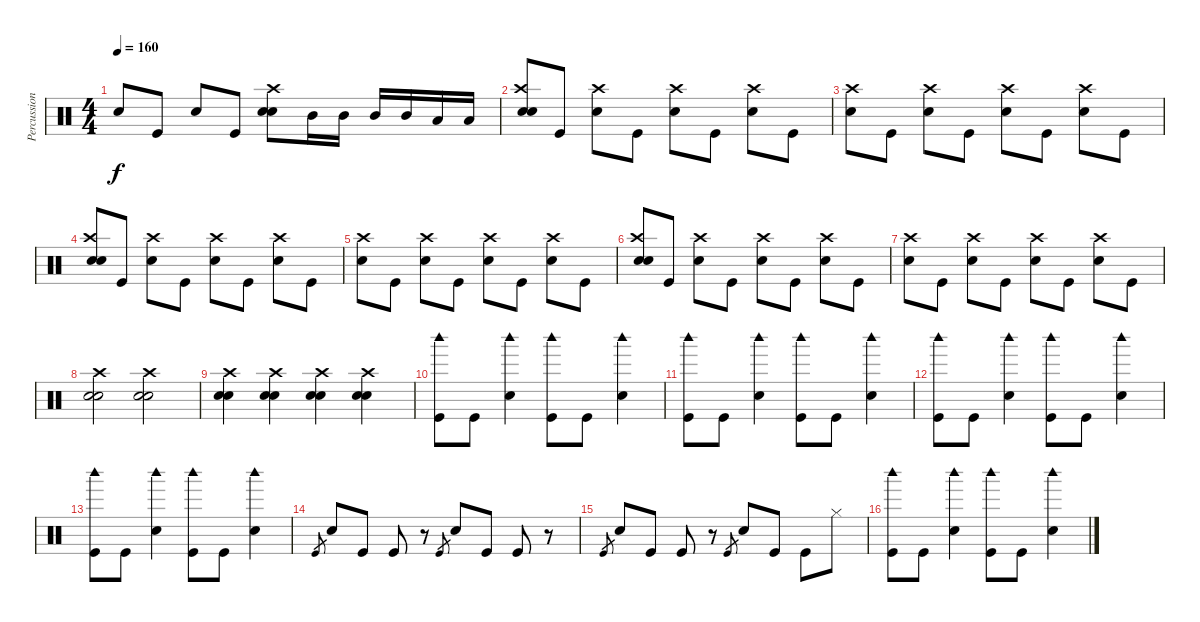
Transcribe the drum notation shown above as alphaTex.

\track ("Percussion" "Percussion") {instrument percussion}
\staff {score}
\articulation defaults
\ts (4 4)
\tempo 160
\clef neutral
\ks c "Snare (hit) 2".8{dy f} "Kick (hit)".8 "Snare (hit) 2".8 "Kick (hit)".8
("Crash high (hit)" "Snare (hit) 2" "Electric Snare (hit)").8 "Mid Tom (hit)".16 "Mid Tom (hit)".16 "Mid Tom (hit)".16 "Mid Tom (hit)".16 "Low Tom (hit)".16 "Low Tom (hit)".16 |
("Crash high (hit)" "Snare (hit) 2" "Electric Snare (hit)").8 "Kick (hit)".8 ("Snare (hit) 2" "Crash high (hit)").8 "Kick (hit)".8 ("Snare (hit) 2" "Crash high (hit)").8 "Kick (hit)".8 ("Snare (hit) 2" "Crash high (hit)").8 "Kick (hit)".8 |
("Snare (hit) 2" "Crash high (hit)").8 "Kick (hit)".8 ("Snare (hit) 2" "Crash high (hit)").8 "Kick (hit)".8 ("Snare (hit) 2" "Crash high (hit)").8 "Kick (hit)".8 ("Snare (hit) 2" "Crash high (hit)").8 "Kick (hit)".8 |
("Crash high (hit)" "Snare (hit) 2" "Electric Snare (hit)").8 "Kick (hit)".8 ("Snare (hit) 2" "Crash high (hit)").8 "Kick (hit)".8 ("Snare (hit) 2" "Crash high (hit)").8 "Kick (hit)".8 ("Snare (hit) 2" "Crash high (hit)").8 "Kick (hit)".8 |
("Snare (hit) 2" "Crash high (hit)").8 "Kick (hit)".8 ("Snare (hit) 2" "Crash high (hit)").8 "Kick (hit)".8 ("Snare (hit) 2" "Crash high (hit)").8 "Kick (hit)".8 ("Snare (hit) 2" "Crash high (hit)").8 "Kick (hit)".8 |
("Crash high (hit)" "Snare (hit) 2" "Electric Snare (hit)").8 "Kick (hit)".8 ("Snare (hit) 2" "Crash high (hit)").8 "Kick (hit)".8 ("Snare (hit) 2" "Crash high (hit)").8 "Kick (hit)".8 ("Snare (hit) 2" "Crash high (hit)").8 "Kick (hit)".8 |
("Snare (hit) 2" "Crash high (hit)").8 "Kick (hit)".8 ("Snare (hit) 2" "Crash high (hit)").8 "Kick (hit)".8 ("Snare (hit) 2" "Crash high (hit)").8 "Kick (hit)".8 ("Snare (hit) 2" "Crash high (hit)").8 "Kick (hit)".8 |
("Crash high (hit)" "Snare (hit) 2" "Electric Snare (hit)").2 ("Crash high (hit)" "Snare (hit) 2" "Electric Snare (hit)").2 |
("Crash high (hit)" "Snare (hit) 2" "Electric Snare (hit)").4 ("Crash high (hit)" "Snare (hit) 2" "Electric Snare (hit)").4 ("Crash high (hit)" "Snare (hit) 2" "Electric Snare (hit)").4 ("Crash high (hit)" "Snare (hit) 2" "Electric Snare (hit)").4 |
("Woodblock high (hit)" "Kick (hit)").8 "Kick (hit)".8 ("Woodblock high (hit)" "Snare (hit) 2").4 ("Woodblock high (hit)" "Kick (hit)").8 "Kick (hit)".8 ("Woodblock high (hit)" "Snare (hit) 2").4 |
("Woodblock high (hit)" "Kick (hit)").8 "Kick (hit)".8 ("Woodblock high (hit)" "Snare (hit) 2").4 ("Woodblock high (hit)" "Kick (hit)").8 "Kick (hit)".8 ("Woodblock high (hit)" "Snare (hit) 2").4 |
("Woodblock high (hit)" "Kick (hit)").8 "Kick (hit)".8 ("Woodblock high (hit)" "Snare (hit) 2").4 ("Woodblock high (hit)" "Kick (hit)").8 "Kick (hit)".8 ("Woodblock high (hit)" "Snare (hit) 2").4 |
("Woodblock high (hit)" "Kick (hit)").8 "Kick (hit)".8 ("Woodblock high (hit)" "Snare (hit) 2").4 ("Woodblock high (hit)" "Kick (hit)").8 "Kick (hit)".8 ("Woodblock high (hit)" "Snare (hit) 2").4 |
"Kick (hit)".8{gr} "Snare (hit) 2".8 "Kick (hit)".8 "Kick (hit)".8 r.8 "Kick (hit)".8{gr} "Snare (hit) 2".8 "Kick (hit)".8 "Kick (hit)".8 r.8 |
"Kick (hit)".8{gr} "Snare (hit) 2".8 "Kick (hit)".8 "Kick (hit)".8 r.8 "Kick (hit)".8{gr} "Snare (hit) 2".8 "Kick (hit)".8 "Kick (hit)".8 "Hi-Hat (closed)".8 |
("Woodblock high (hit)" "Kick (hit)").8 "Kick (hit)".8 ("Woodblock high (hit)" "Snare (hit) 2").4 ("Woodblock high (hit)" "Kick (hit)").8 "Kick (hit)".8 ("Woodblock high (hit)" "Snare (hit) 2").4
